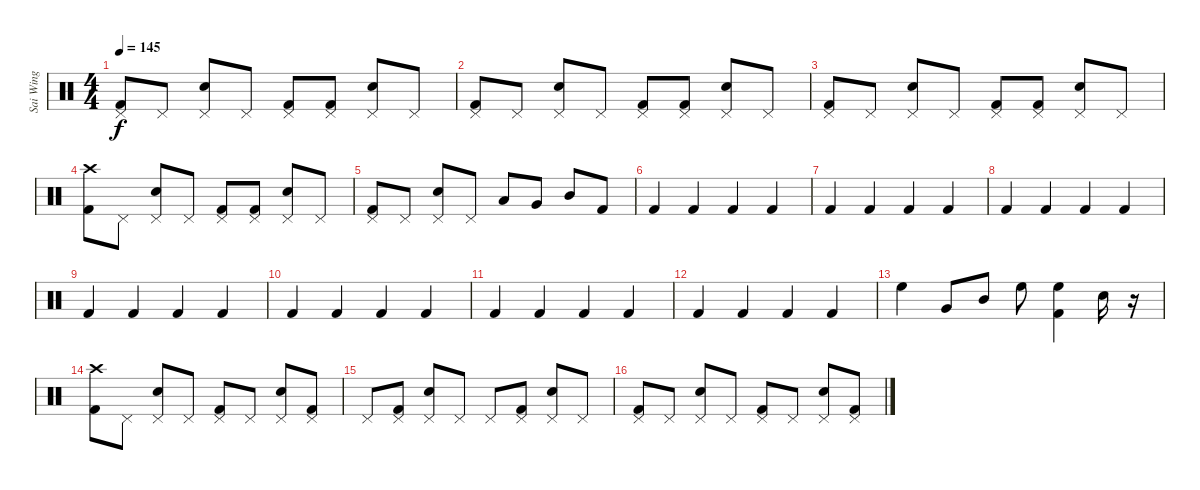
\track ("Sai Wing" "Sai Wing") {instrument percussion}
\staff {score}
\articulation defaults
\ts (4 4)
\tempo 145
\clef neutral
\ks c
("Pedal Hi-Hat (hit)" "Kick (hit) 2").8{dy f} "Pedal Hi-Hat (hit)".8 ("Pedal Hi-Hat (hit)" "Snare (hit) 2").8 "Pedal Hi-Hat (hit)".8 ("Pedal Hi-Hat (hit)" "Kick (hit) 2").8 ("Pedal Hi-Hat (hit)" "Kick (hit) 2").8 ("Pedal Hi-Hat (hit)" "Snare (hit) 2").8 "Pedal Hi-Hat (hit)".8 |
("Pedal Hi-Hat (hit)" "Kick (hit) 2").8 "Pedal Hi-Hat (hit)".8 ("Pedal Hi-Hat (hit)" "Snare (hit) 2").8 "Pedal Hi-Hat (hit)".8 ("Pedal Hi-Hat (hit)" "Kick (hit) 2").8 ("Pedal Hi-Hat (hit)" "Kick (hit) 2").8 ("Pedal Hi-Hat (hit)" "Snare (hit) 2").8 "Pedal Hi-Hat (hit)".8 |
("Pedal Hi-Hat (hit)" "Kick (hit) 2").8 "Pedal Hi-Hat (hit)".8 ("Pedal Hi-Hat (hit)" "Snare (hit) 2").8 "Pedal Hi-Hat (hit)".8 ("Pedal Hi-Hat (hit)" "Kick (hit) 2").8 ("Pedal Hi-Hat (hit)" "Kick (hit) 2").8 ("Pedal Hi-Hat (hit)" "Snare (hit) 2").8 "Pedal Hi-Hat (hit)".8 |
("Crash high (hit)" "Kick (hit) 2").8 "Pedal Hi-Hat (hit)".8 ("Pedal Hi-Hat (hit)" "Snare (hit) 2").8 "Pedal Hi-Hat (hit)".8 ("Pedal Hi-Hat (hit)" "Kick (hit) 2").8 ("Pedal Hi-Hat (hit)" "Kick (hit) 2").8 ("Pedal Hi-Hat (hit)" "Snare (hit) 2").8 "Pedal Hi-Hat (hit)".8 |
("Pedal Hi-Hat (hit)" "Kick (hit) 2").8 "Pedal Hi-Hat (hit)".8 ("Pedal Hi-Hat (hit)" "Snare (hit) 2").8 "Pedal Hi-Hat (hit)".8 "Low Tom (hit)".8 "Very Low Tom (hit)".8 "Mid Tom (hit)".8 "Kick (hit) 2".8 |
"Kick (hit) 2".4 "Kick (hit) 2".4 "Kick (hit) 2".4 "Kick (hit) 2".4 |
"Kick (hit) 2".4 "Kick (hit) 2".4 "Kick (hit) 2".4 "Kick (hit) 2".4 |
"Kick (hit) 2".4 "Kick (hit) 2".4 "Kick (hit) 2".4 "Kick (hit) 2".4 |
"Kick (hit) 2".4 "Kick (hit) 2".4 "Kick (hit) 2".4 "Kick (hit) 2".4 |
"Kick (hit) 2".4 "Kick (hit) 2".4 "Kick (hit) 2".4 "Kick (hit) 2".4 |
"Kick (hit) 2".4 "Kick (hit) 2".4 "Kick (hit) 2".4 "Kick (hit) 2".4 |
"Kick (hit) 2".4 "Kick (hit) 2".4 "Kick (hit) 2".4 "Kick (hit) 2".4 |
"High Floor Tom (hit)".4 "Very Low Tom (hit)".8 "Mid Tom (hit)".8 "High Floor Tom (hit)".8 ("High Floor Tom (hit)" "Kick (hit) 2").4 "Snare (hit) 2".16 r.16 |
("Crash high (hit)" "Kick (hit) 2").8 "Pedal Hi-Hat (hit)".8 ("Pedal Hi-Hat (hit)" "Snare (hit) 2").8 "Pedal Hi-Hat (hit)".8 ("Pedal Hi-Hat (hit)" "Kick (hit) 2").8 "Pedal Hi-Hat (hit)".8 ("Pedal Hi-Hat (hit)" "Snare (hit) 2").8 ("Pedal Hi-Hat (hit)" "Kick (hit) 2").8 |
"Pedal Hi-Hat (hit)".8 ("Pedal Hi-Hat (hit)" "Kick (hit) 2").8 ("Pedal Hi-Hat (hit)" "Snare (hit) 2").8 "Pedal Hi-Hat (hit)".8 "Pedal Hi-Hat (hit)".8 ("Pedal Hi-Hat (hit)" "Kick (hit) 2").8 ("Pedal Hi-Hat (hit)" "Snare (hit) 2").8 "Pedal Hi-Hat (hit)".8 |
("Pedal Hi-Hat (hit)" "Kick (hit) 2").8 "Pedal Hi-Hat (hit)".8 ("Pedal Hi-Hat (hit)" "Snare (hit) 2").8 "Pedal Hi-Hat (hit)".8 ("Pedal Hi-Hat (hit)" "Kick (hit) 2").8 "Pedal Hi-Hat (hit)".8 ("Pedal Hi-Hat (hit)" "Snare (hit) 2").8 ("Pedal Hi-Hat (hit)" "Kick (hit) 2").8
